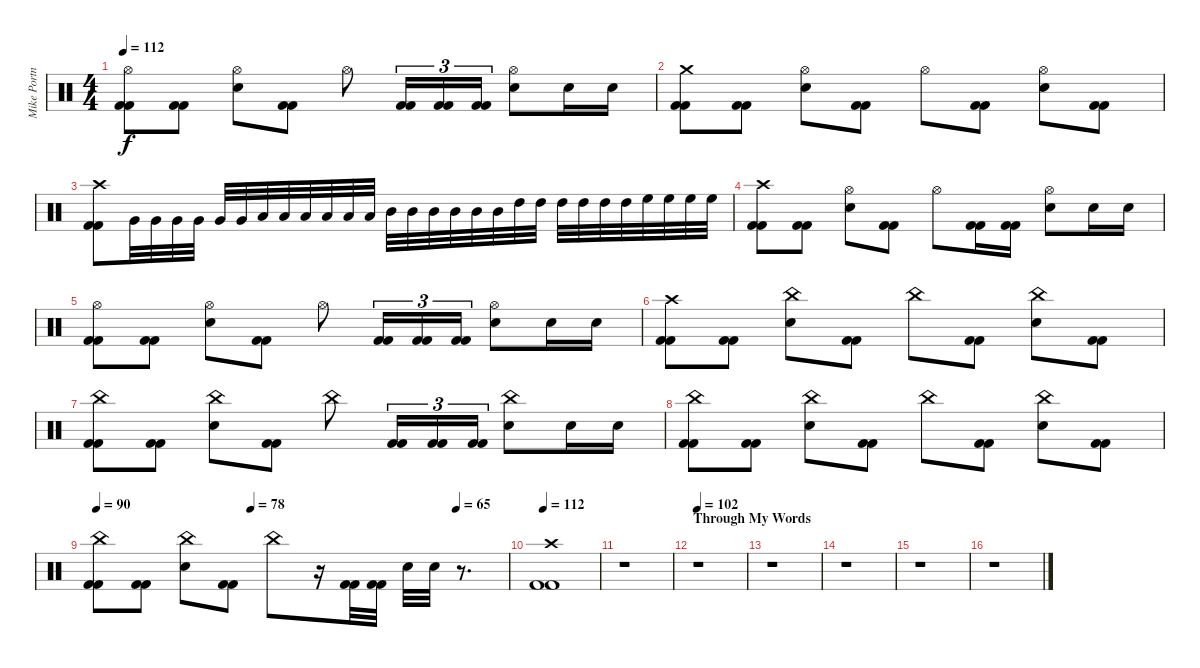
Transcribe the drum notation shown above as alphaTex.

\track ("Mike Portnoy - Drum" "Mike Portn") {instrument percussion}
\staff {score}
\articulation defaults
\ts (4 4)
\tempo 112
\clef neutral
\ks c
("Hi-Hat (open)" "Kick (hit) 2" "Kick (hit) 2").8{dy f} ("Kick (hit) 2" "Kick (hit) 2").8 ("Hi-Hat (open)" "Snare (hit) 2").8 ("Kick (hit) 2" "Kick (hit) 2").8 "Hi-Hat (open)".8 ("Kick (hit) 2" "Kick (hit) 2").16{tu (3 2)} ("Kick (hit) 2" "Kick (hit) 2").16{tu (3 2)} ("Kick (hit) 2" "Kick (hit) 2").16{tu (3 2)} ("Hi-Hat (open)" "Snare (hit) 2").8 "Snare (hit) 2".16 "Snare (hit) 2".16 |
("Crash medium (hit)" "Kick (hit) 2" "Kick (hit) 2").8 ("Kick (hit) 2" "Kick (hit) 2").8 ("Hi-Hat (open)" "Snare (hit) 2").8 ("Kick (hit) 2" "Kick (hit) 2").8 "Hi-Hat (open)".8 ("Kick (hit) 2" "Kick (hit) 2").8 ("Hi-Hat (open)" "Snare (hit) 2").8 ("Kick (hit) 2" "Kick (hit) 2").8 |
("Crash high (hit)" "Kick (hit) 2" "Kick (hit) 2").8 "Very Low Tom (hit)".32 "Very Low Tom (hit)".32 "Very Low Tom (hit)".32 "Very Low Tom (hit)".32 "Very Low Tom (hit)".32 "Very Low Tom (hit)".32 "Low Tom (hit)".32 "Low Tom (hit)".32 "Low Tom (hit)".32 "Low Tom (hit)".32 "Low Tom (hit)".32 "Low Tom (hit)".32 "Mid Tom (hit)".32 "Mid Tom (hit)".32 "Mid Tom (hit)".32 "Mid Tom (hit)".32 "Mid Tom (hit)".32 "Mid Tom (hit)".32 "High Tom (hit)".32 "High Tom (hit)".32 "High Tom (hit)".32 "High Tom (hit)".32 "High Tom (hit)".32 "High Tom (hit)".32 "High Floor Tom (hit)".32 "High Floor Tom (hit)".32 "High Floor Tom (hit)".32 "High Floor Tom (hit)".32 |
("Crash high (hit)" "Kick (hit) 2" "Kick (hit) 2").8 ("Kick (hit) 2" "Kick (hit) 2").8 ("Hi-Hat (open)" "Snare (hit) 2").8 ("Kick (hit) 2" "Kick (hit) 2").8 "Hi-Hat (open)".8 ("Kick (hit) 2" "Kick (hit) 2").16 ("Kick (hit) 2" "Kick (hit) 2").16 ("Hi-Hat (open)" "Snare (hit) 2").8 "Snare (hit) 2".16 "Snare (hit) 2".16 |
("Hi-Hat (open)" "Kick (hit) 2" "Kick (hit) 2").8 ("Kick (hit) 2" "Kick (hit) 2").8 ("Hi-Hat (open)" "Snare (hit) 2").8 ("Kick (hit) 2" "Kick (hit) 2").8 "Hi-Hat (open)".8 ("Kick (hit) 2" "Kick (hit) 2").16{tu (3 2)} ("Kick (hit) 2" "Kick (hit) 2").16{tu (3 2)} ("Kick (hit) 2" "Kick (hit) 2").16{tu (3 2)} ("Hi-Hat (open)" "Snare (hit) 2").8 "Snare (hit) 2".16 "Snare (hit) 2".16 |
("Crash high (hit)" "Kick (hit) 2" "Kick (hit) 2").8 ("Kick (hit) 2" "Kick (hit) 2").8 ("China (hit)" "Snare (hit) 2").8 ("Kick (hit) 2" "Kick (hit) 2").8 "China (hit)".8 ("Kick (hit) 2" "Kick (hit) 2").8 ("China (hit)" "Snare (hit) 2").8 ("Kick (hit) 2" "Kick (hit) 2").8 |
("China (hit)" "Kick (hit) 2" "Kick (hit) 2").8 ("Kick (hit) 2" "Kick (hit) 2").8 ("China (hit)" "Snare (hit) 2").8 ("Kick (hit) 2" "Kick (hit) 2").8 "China (hit)".8 ("Kick (hit) 2" "Kick (hit) 2").16{tu (3 2)} ("Kick (hit) 2" "Kick (hit) 2").16{tu (3 2)} ("Kick (hit) 2" "Kick (hit) 2").16{tu (3 2)} ("China (hit)" "Snare (hit) 2").8 "Snare (hit) 2".16 "Snare (hit) 2".16 |
("China (hit)" "Kick (hit) 2" "Kick (hit) 2").8 ("Kick (hit) 2" "Kick (hit) 2").8 ("China (hit)" "Snare (hit) 2").8 ("Kick (hit) 2" "Kick (hit) 2").8 "China (hit)".8 ("Kick (hit) 2" "Kick (hit) 2").8 ("China (hit)" "Snare (hit) 2").8 ("Kick (hit) 2" "Kick (hit) 2").8 |
\tempo 90
\tempo (78 0.375)
\tempo (65 0.875)
("China (hit)" "Kick (hit) 2" "Kick (hit) 2").8 ("Kick (hit) 2" "Kick (hit) 2").8 ("China (hit)" "Snare (hit) 2").8 ("Kick (hit) 2" "Kick (hit) 2").8 "China (hit)".8 r.16 ("Kick (hit) 2" "Kick (hit) 2").32 ("Kick (hit) 2" "Kick (hit) 2").32 "Snare (hit) 2".32 "Snare (hit) 2".32 r.8{d} |
\tempo 112
("Crash high (hit)" "Kick (hit) 2" "Kick (hit) 2").1 |
r.1 |
\section ("" "Through My Words")
\tempo 102
r.1 |
r.1 |
r.1 |
r.1 |
r.1
